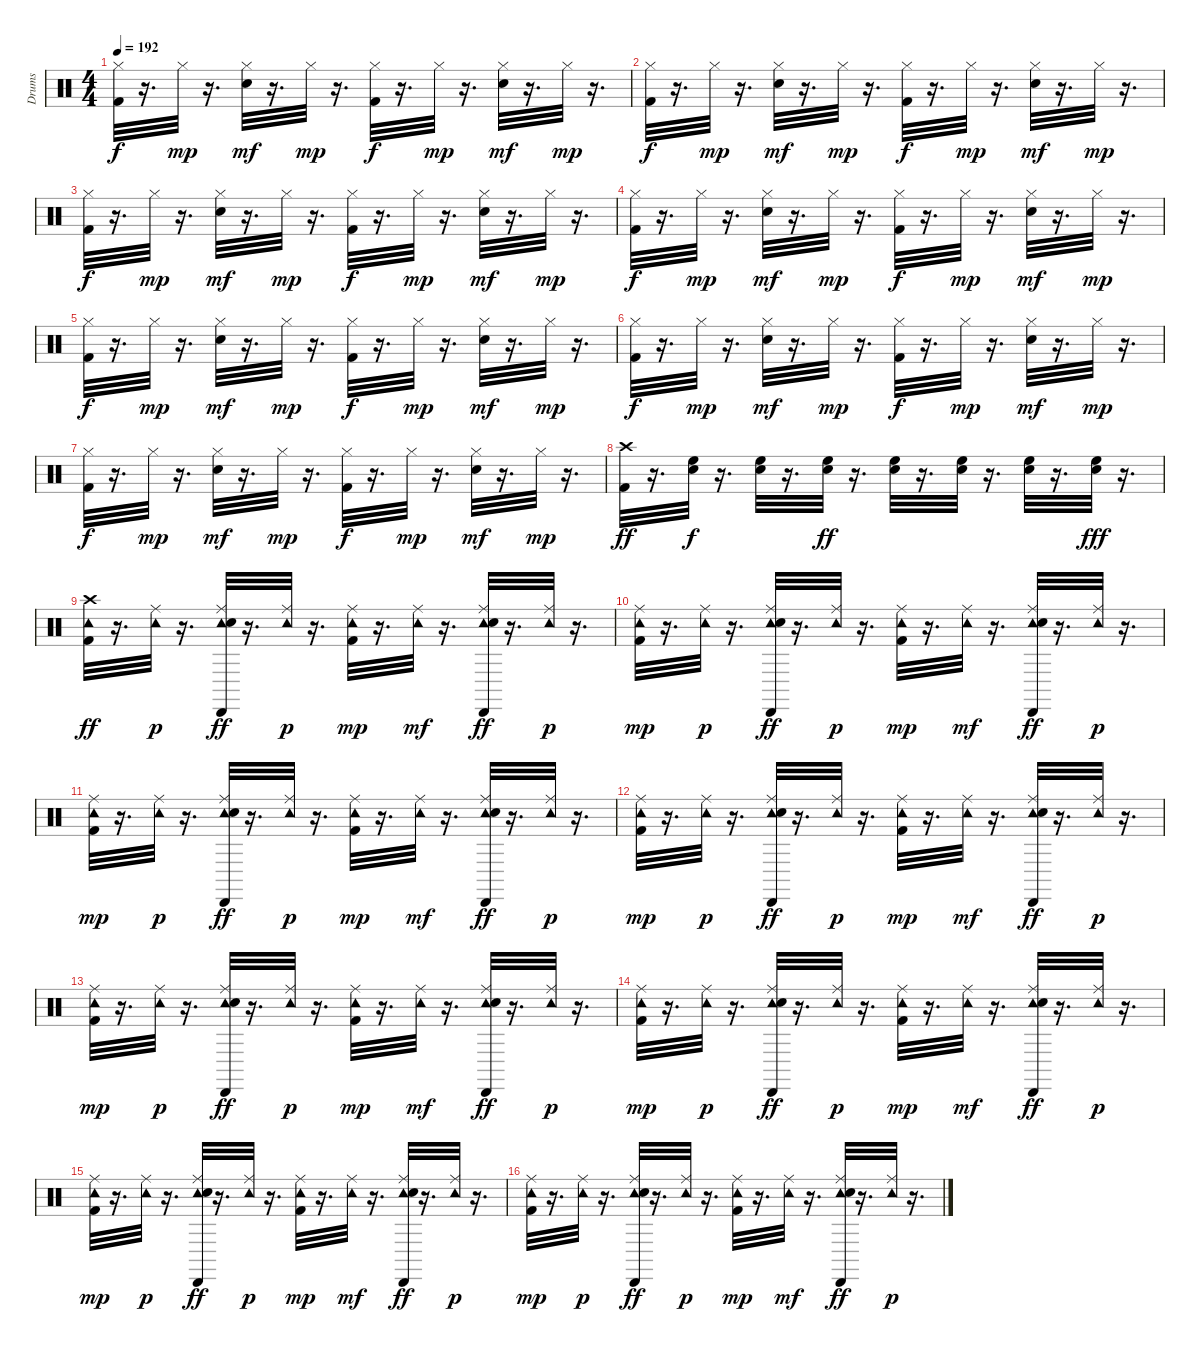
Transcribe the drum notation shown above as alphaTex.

\track ("Drums" "Drums") {instrument percussion}
\staff {score}
\articulation defaults
\ts (4 4)
\tempo 192
\clef neutral
\ks c
("Kick (hit) 2" "Hi-Hat (closed)").32{dy f} r.16{d} "Hi-Hat (closed)".32{dy mp} r.16{d} ("Snare (hit) 2" "Hi-Hat (closed)").32{dy mf} r.16{d} "Hi-Hat (closed)".32{dy mp} r.16{d} ("Kick (hit) 2" "Hi-Hat (closed)").32{dy f} r.16{d} "Hi-Hat (closed)".32{dy mp} r.16{d} ("Snare (hit) 2" "Hi-Hat (closed)").32{dy mf} r.16{d} "Hi-Hat (closed)".32{dy mp} r.16{d} |
("Kick (hit) 2" "Hi-Hat (closed)").32{dy f} r.16{d} "Hi-Hat (closed)".32{dy mp} r.16{d} ("Snare (hit) 2" "Hi-Hat (closed)").32{dy mf} r.16{d} "Hi-Hat (closed)".32{dy mp} r.16{d} ("Kick (hit) 2" "Hi-Hat (closed)").32{dy f} r.16{d} "Hi-Hat (closed)".32{dy mp} r.16{d} ("Snare (hit) 2" "Hi-Hat (closed)").32{dy mf} r.16{d} "Hi-Hat (closed)".32{dy mp} r.16{d} |
("Kick (hit) 2" "Hi-Hat (closed)").32{dy f} r.16{d} "Hi-Hat (closed)".32{dy mp} r.16{d} ("Snare (hit) 2" "Hi-Hat (closed)").32{dy mf} r.16{d} "Hi-Hat (closed)".32{dy mp} r.16{d} ("Kick (hit) 2" "Hi-Hat (closed)").32{dy f} r.16{d} "Hi-Hat (closed)".32{dy mp} r.16{d} ("Snare (hit) 2" "Hi-Hat (closed)").32{dy mf} r.16{d} "Hi-Hat (closed)".32{dy mp} r.16{d} |
("Kick (hit) 2" "Hi-Hat (closed)").32{dy f} r.16{d} "Hi-Hat (closed)".32{dy mp} r.16{d} ("Snare (hit) 2" "Hi-Hat (closed)").32{dy mf} r.16{d} "Hi-Hat (closed)".32{dy mp} r.16{d} ("Kick (hit) 2" "Hi-Hat (closed)").32{dy f} r.16{d} "Hi-Hat (closed)".32{dy mp} r.16{d} ("Snare (hit) 2" "Hi-Hat (closed)").32{dy mf} r.16{d} "Hi-Hat (closed)".32{dy mp} r.16{d} |
("Kick (hit) 2" "Hi-Hat (closed)").32{dy f} r.16{d} "Hi-Hat (closed)".32{dy mp} r.16{d} ("Snare (hit) 2" "Hi-Hat (closed)").32{dy mf} r.16{d} "Hi-Hat (closed)".32{dy mp} r.16{d} ("Kick (hit) 2" "Hi-Hat (closed)").32{dy f} r.16{d} "Hi-Hat (closed)".32{dy mp} r.16{d} ("Snare (hit) 2" "Hi-Hat (closed)").32{dy mf} r.16{d} "Hi-Hat (closed)".32{dy mp} r.16{d} |
("Kick (hit) 2" "Hi-Hat (closed)").32{dy f} r.16{d} "Hi-Hat (closed)".32{dy mp} r.16{d} ("Snare (hit) 2" "Hi-Hat (closed)").32{dy mf} r.16{d} "Hi-Hat (closed)".32{dy mp} r.16{d} ("Kick (hit) 2" "Hi-Hat (closed)").32{dy f} r.16{d} "Hi-Hat (closed)".32{dy mp} r.16{d} ("Snare (hit) 2" "Hi-Hat (closed)").32{dy mf} r.16{d} "Hi-Hat (closed)".32{dy mp} r.16{d} |
("Kick (hit) 2" "Hi-Hat (closed)").32{dy f} r.16{d} "Hi-Hat (closed)".32{dy mp} r.16{d} ("Snare (hit) 2" "Hi-Hat (closed)").32{dy mf} r.16{d} "Hi-Hat (closed)".32{dy mp} r.16{d} ("Kick (hit) 2" "Hi-Hat (closed)").32{dy f} r.16{d} "Hi-Hat (closed)".32{dy mp} r.16{d} ("Snare (hit) 2" "Hi-Hat (closed)").32{dy mf} r.16{d} "Hi-Hat (closed)".32{dy mp} r.16{d} |
("Crash high (hit)" "Kick (hit) 2").32{dy ff} r.16{d} ("High Floor Tom (hit)" "Snare (hit) 2").32{dy f} r.16{d} ("High Floor Tom (hit)" "Snare (hit) 2").32 r.16{d} ("High Floor Tom (hit)" "Snare (hit) 2").32{dy ff} r.16{d} ("High Floor Tom (hit)" "Snare (hit) 2").32 r.16{d} ("High Floor Tom (hit)" "Snare (hit) 2").32 r.16{d} ("High Floor Tom (hit)" "Snare (hit) 2").32 r.16{d} ("High Floor Tom (hit)" "Snare (hit) 2").32{dy fff} r.16{d} |
("Kick (hit) 2" "Tambourine (hit)" "Crash high (hit)").32{dy ff} r.16{d} ("Ride (middle)" "Tambourine (hit)").32{dy p} r.16{d} ("Tambourine (hit)" "Cabasa (hit)" "Ride (middle)" "Snare (hit) 2").32{dy ff} r.16{d} ("Ride (middle)" "Tambourine (hit)").32{dy p} r.16{d} ("Kick (hit) 2" "Tambourine (hit)" "Ride (middle)").32{dy mp} r.16{d} ("Tambourine (hit)" "Ride (middle)").32{dy mf} r.16{d} ("Tambourine (hit)" "Cabasa (hit)" "Ride (middle)" "Snare (hit) 2").32{dy ff} r.16{d} ("Ride (middle)" "Tambourine (hit)").32{dy p} r.16{d} |
("Kick (hit) 2" "Tambourine (hit)" "Ride (middle)").32{dy mp} r.16{d} ("Ride (middle)" "Tambourine (hit)").32{dy p} r.16{d} ("Tambourine (hit)" "Cabasa (hit)" "Ride (middle)" "Snare (hit) 2").32{dy ff} r.16{d} ("Ride (middle)" "Tambourine (hit)").32{dy p} r.16{d} ("Kick (hit) 2" "Tambourine (hit)" "Ride (middle)").32{dy mp} r.16{d} ("Tambourine (hit)" "Ride (middle)").32{dy mf} r.16{d} ("Tambourine (hit)" "Cabasa (hit)" "Ride (middle)" "Snare (hit) 2").32{dy ff} r.16{d} ("Ride (middle)" "Tambourine (hit)").32{dy p} r.16{d} |
("Kick (hit) 2" "Tambourine (hit)" "Ride (middle)").32{dy mp} r.16{d} ("Ride (middle)" "Tambourine (hit)").32{dy p} r.16{d} ("Tambourine (hit)" "Cabasa (hit)" "Ride (middle)" "Snare (hit) 2").32{dy ff} r.16{d} ("Ride (middle)" "Tambourine (hit)").32{dy p} r.16{d} ("Kick (hit) 2" "Tambourine (hit)" "Ride (middle)").32{dy mp} r.16{d} ("Tambourine (hit)" "Ride (middle)").32{dy mf} r.16{d} ("Tambourine (hit)" "Cabasa (hit)" "Ride (middle)" "Snare (hit) 2").32{dy ff} r.16{d} ("Ride (middle)" "Tambourine (hit)").32{dy p} r.16{d} |
("Kick (hit) 2" "Tambourine (hit)" "Ride (middle)").32{dy mp} r.16{d} ("Ride (middle)" "Tambourine (hit)").32{dy p} r.16{d} ("Tambourine (hit)" "Cabasa (hit)" "Ride (middle)" "Snare (hit) 2").32{dy ff} r.16{d} ("Ride (middle)" "Tambourine (hit)").32{dy p} r.16{d} ("Kick (hit) 2" "Tambourine (hit)" "Ride (middle)").32{dy mp} r.16{d} ("Tambourine (hit)" "Ride (middle)").32{dy mf} r.16{d} ("Tambourine (hit)" "Cabasa (hit)" "Ride (middle)" "Snare (hit) 2").32{dy ff} r.16{d} ("Ride (middle)" "Tambourine (hit)").32{dy p} r.16{d} |
("Kick (hit) 2" "Tambourine (hit)" "Ride (middle)").32{dy mp} r.16{d} ("Ride (middle)" "Tambourine (hit)").32{dy p} r.16{d} ("Tambourine (hit)" "Cabasa (hit)" "Ride (middle)" "Snare (hit) 2").32{dy ff} r.16{d} ("Ride (middle)" "Tambourine (hit)").32{dy p} r.16{d} ("Kick (hit) 2" "Tambourine (hit)" "Ride (middle)").32{dy mp} r.16{d} ("Tambourine (hit)" "Ride (middle)").32{dy mf} r.16{d} ("Tambourine (hit)" "Cabasa (hit)" "Ride (middle)" "Snare (hit) 2").32{dy ff} r.16{d} ("Ride (middle)" "Tambourine (hit)").32{dy p} r.16{d} |
("Kick (hit) 2" "Tambourine (hit)" "Ride (middle)").32{dy mp} r.16{d} ("Ride (middle)" "Tambourine (hit)").32{dy p} r.16{d} ("Tambourine (hit)" "Cabasa (hit)" "Ride (middle)" "Snare (hit) 2").32{dy ff} r.16{d} ("Ride (middle)" "Tambourine (hit)").32{dy p} r.16{d} ("Kick (hit) 2" "Tambourine (hit)" "Ride (middle)").32{dy mp} r.16{d} ("Tambourine (hit)" "Ride (middle)").32{dy mf} r.16{d} ("Tambourine (hit)" "Cabasa (hit)" "Ride (middle)" "Snare (hit) 2").32{dy ff} r.16{d} ("Ride (middle)" "Tambourine (hit)").32{dy p} r.16{d} |
("Kick (hit) 2" "Tambourine (hit)" "Ride (middle)").32{dy mp} r.16{d} ("Ride (middle)" "Tambourine (hit)").32{dy p} r.16{d} ("Tambourine (hit)" "Cabasa (hit)" "Ride (middle)" "Snare (hit) 2").32{dy ff} r.16{d} ("Ride (middle)" "Tambourine (hit)").32{dy p} r.16{d} ("Kick (hit) 2" "Tambourine (hit)" "Ride (middle)").32{dy mp} r.16{d} ("Tambourine (hit)" "Ride (middle)").32{dy mf} r.16{d} ("Tambourine (hit)" "Cabasa (hit)" "Ride (middle)" "Snare (hit) 2").32{dy ff} r.16{d} ("Ride (middle)" "Tambourine (hit)").32{dy p} r.16{d} |
("Kick (hit) 2" "Tambourine (hit)" "Ride (middle)").32{dy mp} r.16{d} ("Ride (middle)" "Tambourine (hit)").32{dy p} r.16{d} ("Tambourine (hit)" "Cabasa (hit)" "Ride (middle)" "Snare (hit) 2").32{dy ff} r.16{d} ("Ride (middle)" "Tambourine (hit)").32{dy p} r.16{d} ("Kick (hit) 2" "Tambourine (hit)" "Ride (middle)").32{dy mp} r.16{d} ("Tambourine (hit)" "Ride (middle)").32{dy mf} r.16{d} ("Tambourine (hit)" "Cabasa (hit)" "Ride (middle)" "Snare (hit) 2").32{dy ff} r.16{d} ("Ride (middle)" "Tambourine (hit)").32{dy p} r.16{d}
